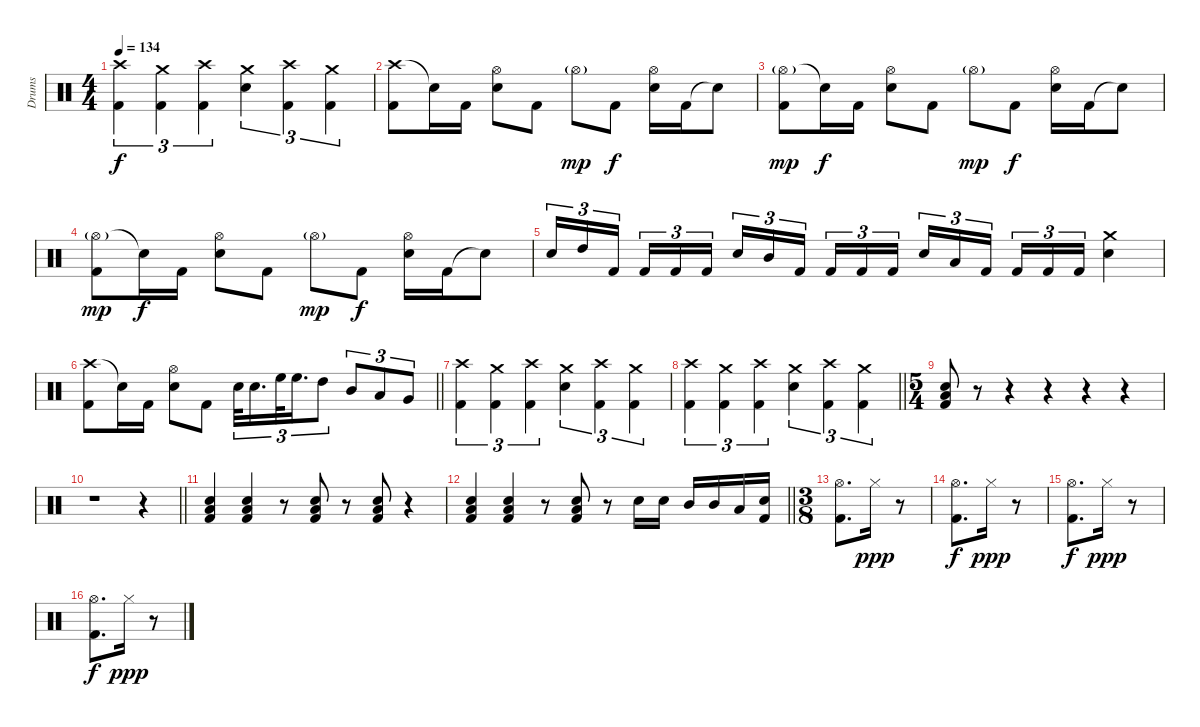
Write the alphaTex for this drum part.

\track ("Drums" "Drums") {instrument percussion}
\staff {score}
\articulation defaults
\ts (4 4)
\tempo 134
\clef neutral
\ks c
("Crash high (hit)" "Kick (hit) 2").4{tu (3 2) dy f} ("Crash medium (hit)" "Kick (hit) 2").4{tu (3 2)} ("Crash high (hit)" "Kick (hit) 2").4{tu (3 2)} ("Crash medium (hit)" "Electric Snare (hit)").4{tu (3 2)} ("Crash high (hit)" "Kick (hit) 2").4{tu (3 2)} ("Crash medium (hit)" "Kick (hit) 2").4{tu (3 2)} |
("Crash high (hit)" "Kick (hit) 2").8 "Snare (hit)"{t}.16 "Kick (hit) 2".16 ("Hi-Hat (open)" "Electric Snare (hit)").8 "Kick (hit) 2".8 "Hi-Hat (open)"{g}.8{dy mp} "Kick (hit) 2".8{dy f} ("Hi-Hat (open)" "Electric Snare (hit)").16 "Kick (hit) 2".16 "Snare (hit)"{t}.8 |
("Hi-Hat (open)"{g} "Kick (hit) 2").8{dy mp} "Snare (hit)"{t}.16{dy f} "Kick (hit) 2".16 ("Hi-Hat (open)" "Electric Snare (hit)").8 "Kick (hit) 2".8 "Hi-Hat (open)"{g}.8{dy mp} "Kick (hit) 2".8{dy f} ("Hi-Hat (open)" "Electric Snare (hit)").16 "Kick (hit) 2".16 "Snare (hit)"{t}.8 |
("Hi-Hat (open)"{g} "Kick (hit) 2").8{dy mp} "Snare (hit)"{t}.16{dy f} "Kick (hit) 2".16 ("Hi-Hat (open)" "Electric Snare (hit)").8 "Kick (hit) 2".8 "Hi-Hat (open)"{g}.8{dy mp} "Kick (hit) 2".8{dy f} ("Hi-Hat (open)" "Electric Snare (hit)").16 "Kick (hit) 2".16 "Snare (hit)"{t}.8 |
"Electric Snare (hit)".16{tu (3 2)} "High Tom (hit)".16{tu (3 2)} "Kick (hit) 2".16{tu (3 2)} "Kick (hit) 2".16{tu (3 2)} "Kick (hit) 2".16{tu (3 2)} "Kick (hit) 2".16{tu (3 2)} "Electric Snare (hit)".16{tu (3 2)} "Mid Tom (hit)".16{tu (3 2)} "Kick (hit) 2".16{tu (3 2)} "Kick (hit) 2".16{tu (3 2)} "Kick (hit) 2".16{tu (3 2)} "Kick (hit) 2".16{tu (3 2)} "Electric Snare (hit)".16{tu (3 2)} "Low Tom (hit)".16{tu (3 2)} "Kick (hit) 2".16{tu (3 2)} "Kick (hit) 2".16{tu (3 2)} "Kick (hit) 2".16{tu (3 2)} "Kick (hit) 2".16{tu (3 2)} ("Crash medium (hit)" "Electric Snare (hit)").4 |
\barLineRight lightlight
("Crash high (hit)" "Kick (hit) 2").8 "Snare (hit)"{t}.16 "Kick (hit) 2".16 ("Hi-Hat (open)" "Electric Snare (hit)").8 "Kick (hit) 2".8 "Electric Snare (hit)".32{tu (3 2)} "Electric Snare (hit)".16{d tu (3 2)} "High Floor Tom (hit)".32{tu (3 2)} "High Floor Tom (hit)".16{d tu (3 2)} "High Tom (hit)".8{tu (3 2)} "Mid Tom (hit)".8{tu (3 2)} "Low Tom (hit)".8{tu (3 2)} "Very Low Tom (hit)".8{tu (3 2)} |
("Crash high (hit)" "Kick (hit) 2").4{tu (3 2)} ("Crash medium (hit)" "Kick (hit) 2").4{tu (3 2)} ("Crash high (hit)" "Kick (hit) 2").4{tu (3 2)} ("Crash medium (hit)" "Electric Snare (hit)").4{tu (3 2)} ("Crash high (hit)" "Kick (hit) 2").4{tu (3 2)} ("Crash medium (hit)" "Kick (hit) 2").4{tu (3 2)} |
\barLineRight lightlight
("Crash high (hit)" "Kick (hit) 2").4{tu (3 2)} ("Crash medium (hit)" "Kick (hit) 2").4{tu (3 2)} ("Crash high (hit)" "Kick (hit) 2").4{tu (3 2)} ("Crash medium (hit)" "Electric Snare (hit)").4{tu (3 2)} ("Crash high (hit)" "Kick (hit) 2").4{tu (3 2)} ("Crash medium (hit)" "Kick (hit) 2").4{tu (3 2)} |
\ts (5 4)
("Low Tom (hit)" "Electric Snare (hit)" "Kick (hit) 2").8 r.8 r.4 r.4 r.4 r.4 |
\barLineRight lightlight
r.1 r.4 |
("Low Tom (hit)" "Electric Snare (hit)" "Kick (hit) 2").4 ("Low Tom (hit)" "Electric Snare (hit)" "Kick (hit) 2").4 r.8 ("Low Tom (hit)" "Electric Snare (hit)" "Kick (hit) 2").8 r.8 ("Low Tom (hit)" "Electric Snare (hit)" "Kick (hit) 2").8 r.4 |
\barLineRight lightlight
("Low Tom (hit)" "Electric Snare (hit)" "Kick (hit) 2").4 ("Low Tom (hit)" "Electric Snare (hit)" "Kick (hit) 2").4 r.8 ("Low Tom (hit)" "Electric Snare (hit)" "Kick (hit) 2").8 r.8 "Electric Snare (hit)".16 "Electric Snare (hit)".16 "Mid Tom (hit)".16 "Mid Tom (hit)".16 "Low Tom (hit)".16 ("Electric Snare (hit)" "Kick (hit) 2").16 |
\ts (3 8)
("Hi-Hat (open)" "Kick (hit) 2").8{d} "Hi-Hat (closed)".16{dy ppp} r.8 |
("Hi-Hat (open)" "Kick (hit) 2").8{d dy f} "Hi-Hat (closed)".16{dy ppp} r.8 |
("Hi-Hat (open)" "Kick (hit) 2").8{d dy f} "Hi-Hat (closed)".16{dy ppp} r.8 |
("Hi-Hat (open)" "Kick (hit) 2").8{d dy f} "Hi-Hat (closed)".16{dy ppp} r.8
